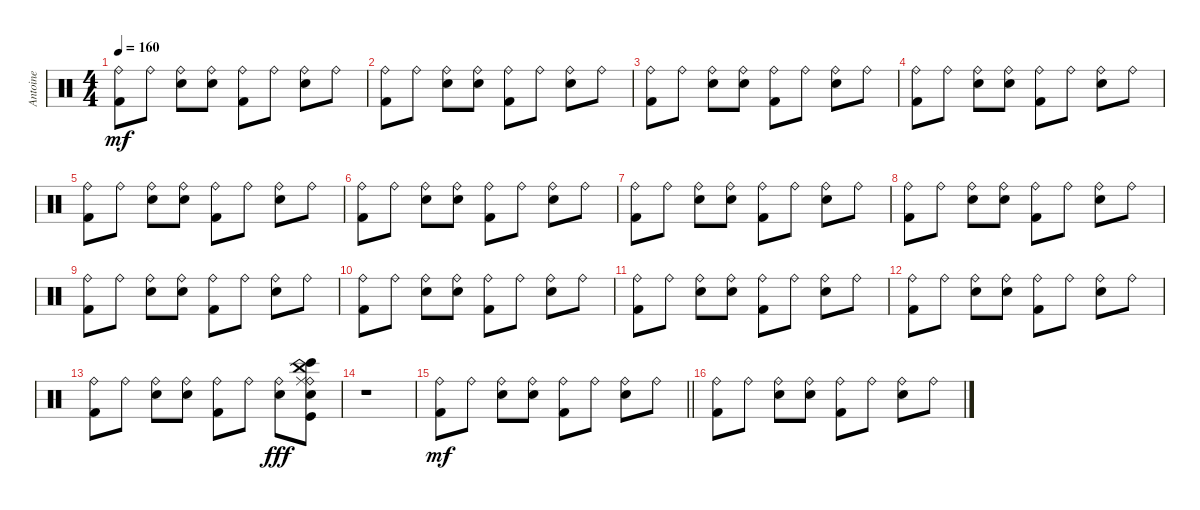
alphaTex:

\track ("Antoine" "Antoine") {instrument percussion}
\staff {score}
\articulation defaults
\ts (4 4)
\tempo 160
\clef neutral
\ks c
("Kick (hit) 2" "Ride (bell)").8{dy mf} "Ride (bell)".8 ("Electric Snare (hit)" "Ride (bell)").8 ("Electric Snare (hit)" "Ride (bell)").8 ("Kick (hit) 2" "Ride (bell)").8 "Ride (bell)".8 ("Electric Snare (hit)" "Ride (bell)").8 "Ride (bell)".8 |
("Kick (hit) 2" "Ride (bell)").8 "Ride (bell)".8 ("Electric Snare (hit)" "Ride (bell)").8 ("Electric Snare (hit)" "Ride (bell)").8 ("Kick (hit) 2" "Ride (bell)").8 "Ride (bell)".8 ("Electric Snare (hit)" "Ride (bell)").8 "Ride (bell)".8 |
("Kick (hit) 2" "Ride (bell)").8 "Ride (bell)".8 ("Electric Snare (hit)" "Ride (bell)").8 ("Electric Snare (hit)" "Ride (bell)").8 ("Kick (hit) 2" "Ride (bell)").8 "Ride (bell)".8 ("Electric Snare (hit)" "Ride (bell)").8 "Ride (bell)".8 |
("Kick (hit) 2" "Ride (bell)").8 "Ride (bell)".8 ("Electric Snare (hit)" "Ride (bell)").8 ("Electric Snare (hit)" "Ride (bell)").8 ("Kick (hit) 2" "Ride (bell)").8 "Ride (bell)".8 ("Electric Snare (hit)" "Ride (bell)").8 "Ride (bell)".8 |
("Kick (hit) 2" "Ride (bell)").8 "Ride (bell)".8 ("Electric Snare (hit)" "Ride (bell)").8 ("Electric Snare (hit)" "Ride (bell)").8 ("Kick (hit) 2" "Ride (bell)").8 "Ride (bell)".8 ("Electric Snare (hit)" "Ride (bell)").8 "Ride (bell)".8 |
("Kick (hit) 2" "Ride (bell)").8 "Ride (bell)".8 ("Electric Snare (hit)" "Ride (bell)").8 ("Electric Snare (hit)" "Ride (bell)").8 ("Kick (hit) 2" "Ride (bell)").8 "Ride (bell)".8 ("Electric Snare (hit)" "Ride (bell)").8 "Ride (bell)".8 |
("Kick (hit) 2" "Ride (bell)").8 "Ride (bell)".8 ("Electric Snare (hit)" "Ride (bell)").8 ("Electric Snare (hit)" "Ride (bell)").8 ("Kick (hit) 2" "Ride (bell)").8 "Ride (bell)".8 ("Electric Snare (hit)" "Ride (bell)").8 "Ride (bell)".8 |
("Kick (hit) 2" "Ride (bell)").8 "Ride (bell)".8 ("Electric Snare (hit)" "Ride (bell)").8 ("Electric Snare (hit)" "Ride (bell)").8 ("Kick (hit) 2" "Ride (bell)").8 "Ride (bell)".8 ("Electric Snare (hit)" "Ride (bell)").8 "Ride (bell)".8 |
("Kick (hit) 2" "Ride (bell)").8 "Ride (bell)".8 ("Electric Snare (hit)" "Ride (bell)").8 ("Electric Snare (hit)" "Ride (bell)").8 ("Kick (hit) 2" "Ride (bell)").8 "Ride (bell)".8 ("Electric Snare (hit)" "Ride (bell)").8 "Ride (bell)".8 |
("Kick (hit) 2" "Ride (bell)").8 "Ride (bell)".8 ("Electric Snare (hit)" "Ride (bell)").8 ("Electric Snare (hit)" "Ride (bell)").8 ("Kick (hit) 2" "Ride (bell)").8 "Ride (bell)".8 ("Electric Snare (hit)" "Ride (bell)").8 "Ride (bell)".8 |
("Kick (hit) 2" "Ride (bell)").8 "Ride (bell)".8 ("Electric Snare (hit)" "Ride (bell)").8 ("Electric Snare (hit)" "Ride (bell)").8 ("Kick (hit) 2" "Ride (bell)").8 "Ride (bell)".8 ("Electric Snare (hit)" "Ride (bell)").8 "Ride (bell)".8 |
("Kick (hit) 2" "Ride (bell)").8 "Ride (bell)".8 ("Electric Snare (hit)" "Ride (bell)").8 ("Electric Snare (hit)" "Ride (bell)").8 ("Kick (hit) 2" "Ride (bell)").8 "Ride (bell)".8 ("Electric Snare (hit)" "Ride (bell)").8 "Ride (bell)".8 |
("Kick (hit) 2" "Ride (bell)").8 "Ride (bell)".8 ("Electric Snare (hit)" "Ride (bell)").8 ("Electric Snare (hit)" "Ride (bell)").8 ("Kick (hit) 2" "Ride (bell)").8 "Ride (bell)".8 ("Electric Snare (hit)" "Ride (bell)").8{dy fff} ("Bongo High (hit)" "Electric Snare (hit)" "Kick (hit)" "Ride (bell)" "Ride (middle)" "China (hit)").8 |
r.1 |
\barLineRight lightlight
("Kick (hit) 2" "Ride (bell)").8{dy mf} "Ride (bell)".8 ("Electric Snare (hit)" "Ride (bell)").8 ("Electric Snare (hit)" "Ride (bell)").8 ("Kick (hit) 2" "Ride (bell)").8 "Ride (bell)".8 ("Electric Snare (hit)" "Ride (bell)").8 "Ride (bell)".8 |
("Kick (hit) 2" "Ride (bell)").8 "Ride (bell)".8 ("Electric Snare (hit)" "Ride (bell)").8 ("Electric Snare (hit)" "Ride (bell)").8 ("Kick (hit) 2" "Ride (bell)").8 "Ride (bell)".8 ("Electric Snare (hit)" "Ride (bell)").8 "Ride (bell)".8
